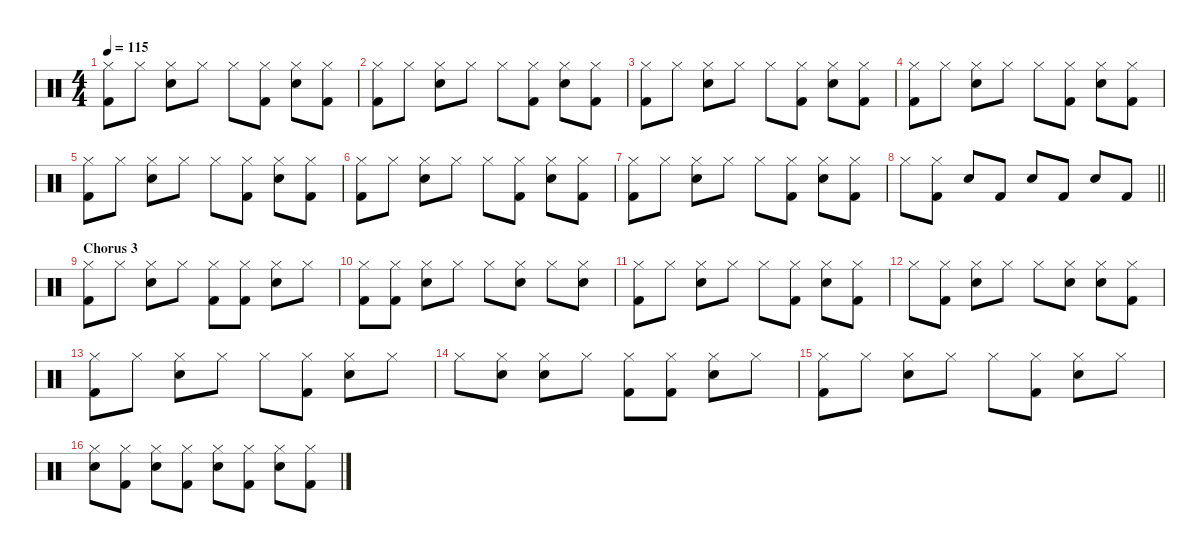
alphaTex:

\defaultSystemsLayout 4
\hideDynamics
\bracketExtendMode nobrackets
\singleTrackTrackNamePolicy hidden
\multiTrackTrackNamePolicy hidden
\otherSystemsTrackNameOrientation horizontal
\track ("Drums" "drm.") {defaultSystemsLayout 4 instrument percussion}
\staff {score}
\articulation defaults
\ts (4 4)
\tempo 115
\clef neutral
\ks c
("Hi-Hat (closed)" "Kick (hit) 2").8{dy f} "Hi-Hat (closed)".8 ("Hi-Hat (closed)" "Snare (hit) 2").8 "Hi-Hat (closed)".8 "Hi-Hat (closed)".8 ("Hi-Hat (closed)" "Kick (hit) 2").8 ("Hi-Hat (closed)" "Snare (hit) 2").8 ("Hi-Hat (closed)" "Kick (hit) 2").8 |
("Hi-Hat (closed)" "Kick (hit) 2").8 "Hi-Hat (closed)".8 ("Hi-Hat (closed)" "Snare (hit) 2").8 "Hi-Hat (closed)".8 "Hi-Hat (closed)".8 ("Hi-Hat (closed)" "Kick (hit) 2").8 ("Hi-Hat (closed)" "Snare (hit) 2").8 ("Hi-Hat (closed)" "Kick (hit) 2").8 |
("Hi-Hat (closed)" "Kick (hit) 2").8 "Hi-Hat (closed)".8 ("Hi-Hat (closed)" "Snare (hit) 2").8 "Hi-Hat (closed)".8 "Hi-Hat (closed)".8 ("Hi-Hat (closed)" "Kick (hit) 2").8 ("Hi-Hat (closed)" "Snare (hit) 2").8 ("Hi-Hat (closed)" "Kick (hit) 2").8 |
("Hi-Hat (closed)" "Kick (hit) 2").8 "Hi-Hat (closed)".8 ("Hi-Hat (closed)" "Snare (hit) 2").8 "Hi-Hat (closed)".8 "Hi-Hat (closed)".8 ("Hi-Hat (closed)" "Kick (hit) 2").8 ("Hi-Hat (closed)" "Snare (hit) 2").8 ("Hi-Hat (closed)" "Kick (hit) 2").8 |
("Hi-Hat (closed)" "Kick (hit) 2").8 "Hi-Hat (closed)".8 ("Hi-Hat (closed)" "Snare (hit) 2").8 "Hi-Hat (closed)".8 "Hi-Hat (closed)".8 ("Hi-Hat (closed)" "Kick (hit) 2").8 ("Hi-Hat (closed)" "Snare (hit) 2").8 ("Hi-Hat (closed)" "Kick (hit) 2").8 |
("Hi-Hat (closed)" "Kick (hit) 2").8 "Hi-Hat (closed)".8 ("Hi-Hat (closed)" "Snare (hit) 2").8 "Hi-Hat (closed)".8 "Hi-Hat (closed)".8 ("Hi-Hat (closed)" "Kick (hit) 2").8 ("Hi-Hat (closed)" "Snare (hit) 2").8 ("Hi-Hat (closed)" "Kick (hit) 2").8 |
("Hi-Hat (closed)" "Kick (hit) 2").8 "Hi-Hat (closed)".8 ("Hi-Hat (closed)" "Snare (hit) 2").8 "Hi-Hat (closed)".8 "Hi-Hat (closed)".8 ("Hi-Hat (closed)" "Kick (hit) 2").8 ("Hi-Hat (closed)" "Snare (hit) 2").8 ("Hi-Hat (closed)" "Kick (hit) 2").8 |
\barLineRight lightlight "Hi-Hat (closed)".8
("Hi-Hat (closed)" "Kick (hit) 2").8 "Snare (hit) 2".8 "Kick (hit) 2".8 "Snare (hit) 2".8 "Kick (hit) 2".8 "Snare (hit) 2".8 "Kick (hit) 2".8 |
\section ("" "Chorus 3")
("Hi-Hat (closed)" "Kick (hit) 2").8 "Hi-Hat (closed)".8 ("Hi-Hat (closed)" "Snare (hit) 2").8 "Hi-Hat (closed)".8 ("Hi-Hat (closed)" "Kick (hit) 2").8 ("Hi-Hat (closed)" "Kick (hit) 2").8 ("Hi-Hat (closed)" "Snare (hit) 2").8 "Hi-Hat (closed)".8 |
("Hi-Hat (closed)" "Kick (hit) 2").8 ("Hi-Hat (closed)" "Kick (hit) 2").8 ("Hi-Hat (closed)" "Snare (hit) 2").8 "Hi-Hat (closed)".8 "Hi-Hat (closed)".8 ("Hi-Hat (closed)" "Snare (hit) 2").8 "Hi-Hat (closed)".8 ("Hi-Hat (closed)" "Snare (hit) 2").8 |
("Hi-Hat (closed)" "Kick (hit) 2").8 "Hi-Hat (closed)".8 ("Hi-Hat (closed)" "Snare (hit) 2").8 "Hi-Hat (closed)".8 "Hi-Hat (closed)".8 ("Hi-Hat (closed)" "Kick (hit) 2").8 ("Hi-Hat (closed)" "Snare (hit) 2").8 ("Hi-Hat (closed)" "Kick (hit) 2").8 |
"Hi-Hat (closed)".8 ("Hi-Hat (closed)" "Kick (hit) 2").8 ("Hi-Hat (closed)" "Snare (hit) 2").8 "Hi-Hat (closed)".8 "Hi-Hat (closed)".8 ("Hi-Hat (closed)" "Snare (hit) 2").8 ("Hi-Hat (closed)" "Snare (hit) 2").8 ("Hi-Hat (closed)" "Kick (hit) 2").8 |
("Hi-Hat (closed)" "Kick (hit) 2").8 "Hi-Hat (closed)".8 ("Hi-Hat (closed)" "Snare (hit) 2").8 "Hi-Hat (closed)".8 "Hi-Hat (closed)".8 ("Hi-Hat (closed)" "Kick (hit) 2").8 ("Hi-Hat (closed)" "Snare (hit) 2").8 "Hi-Hat (closed)".8 |
"Hi-Hat (closed)".8 ("Hi-Hat (closed)" "Snare (hit) 2").8 ("Hi-Hat (closed)" "Snare (hit) 2").8 "Hi-Hat (closed)".8 ("Hi-Hat (closed)" "Kick (hit) 2").8 ("Hi-Hat (closed)" "Kick (hit) 2").8 ("Hi-Hat (closed)" "Snare (hit) 2").8 "Hi-Hat (closed)".8 |
("Hi-Hat (closed)" "Kick (hit) 2").8 "Hi-Hat (closed)".8 ("Hi-Hat (closed)" "Snare (hit) 2").8 "Hi-Hat (closed)".8 "Hi-Hat (closed)".8 ("Hi-Hat (closed)" "Kick (hit) 2").8 ("Hi-Hat (closed)" "Snare (hit) 2").8 "Hi-Hat (closed)".8 |
("Hi-Hat (closed)" "Snare (hit) 2").8 ("Hi-Hat (closed)" "Kick (hit) 2").8 ("Hi-Hat (closed)" "Snare (hit) 2").8 ("Hi-Hat (closed)" "Kick (hit) 2").8 ("Hi-Hat (closed)" "Snare (hit) 2").8 ("Hi-Hat (closed)" "Kick (hit) 2").8 ("Hi-Hat (closed)" "Snare (hit) 2").8 ("Hi-Hat (closed)" "Kick (hit) 2").8
